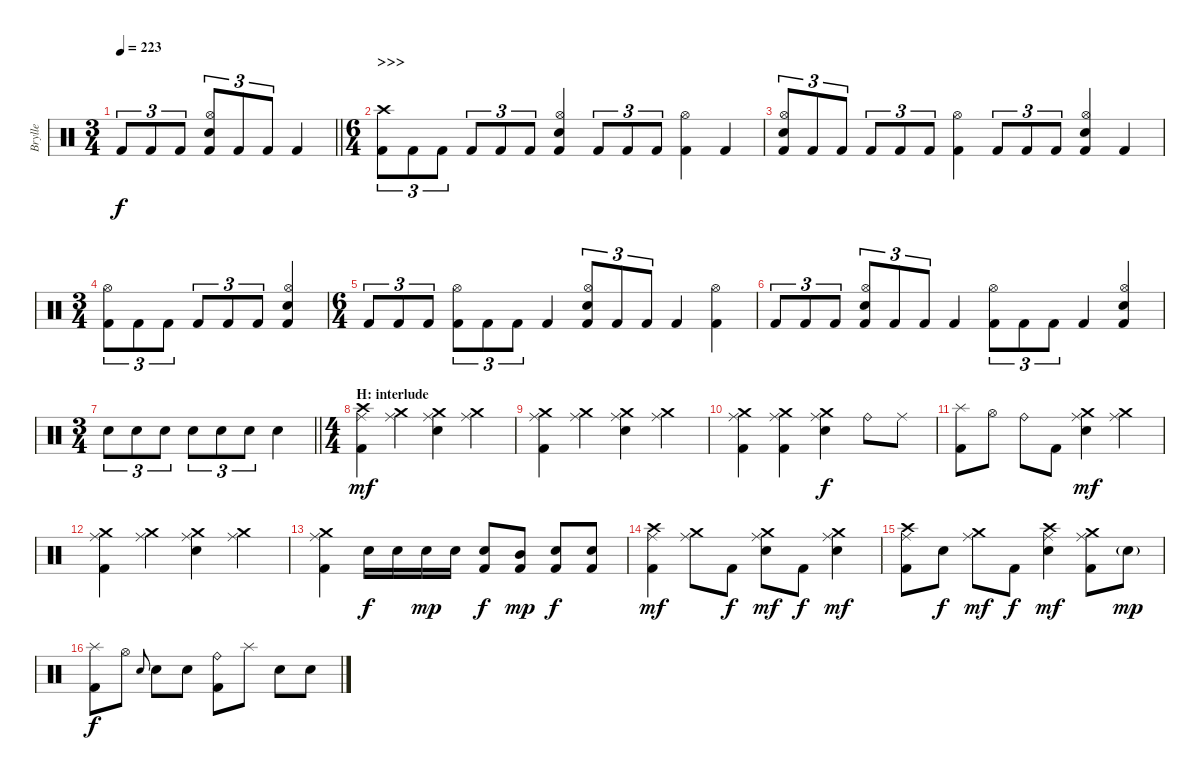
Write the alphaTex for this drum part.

\track ("Brylle" "Brylle") {instrument percussion}
\staff {score}
\articulation defaults
\ts (3 4)
\tempo 223
\clef neutral
\barLineRight lightlight
\ks c "Kick (hit) 2".8{tu (3 2) dy f} "Kick (hit) 2".8{tu (3 2)} "Kick (hit) 2".8{tu (3 2)}
("Hi-Hat (open)" "Electric Snare (hit)" "Kick (hit) 2").8{tu (3 2)} "Kick (hit) 2".8{tu (3 2)} "Kick (hit) 2".8{tu (3 2)} "Kick (hit) 2".4 |
\ts (6 4)
\section ("" ">>>")
("Crash high (hit)" "Kick (hit) 2").8{tu (3 2)} "Kick (hit) 2".8{tu (3 2)} "Kick (hit) 2".8{tu (3 2)} "Kick (hit) 2".8{tu (3 2)} "Kick (hit) 2".8{tu (3 2)} "Kick (hit) 2".8{tu (3 2)} ("Hi-Hat (open)" "Electric Snare (hit)" "Kick (hit) 2").4 "Kick (hit) 2".8{tu (3 2)} "Kick (hit) 2".8{tu (3 2)} "Kick (hit) 2".8{tu (3 2)} ("Hi-Hat (open)" "Kick (hit) 2").4 "Kick (hit) 2".4 |
("Hi-Hat (open)" "Electric Snare (hit)" "Kick (hit) 2").8{tu (3 2)} "Kick (hit) 2".8{tu (3 2)} "Kick (hit) 2".8{tu (3 2)} "Kick (hit) 2".8{tu (3 2)} "Kick (hit) 2".8{tu (3 2)} "Kick (hit) 2".8{tu (3 2)} ("Hi-Hat (open)" "Kick (hit) 2").4 "Kick (hit) 2".8{tu (3 2)} "Kick (hit) 2".8{tu (3 2)} "Kick (hit) 2".8{tu (3 2)} ("Hi-Hat (open)" "Electric Snare (hit)" "Kick (hit) 2").4 "Kick (hit) 2".4 |
\ts (3 4)
("Hi-Hat (open)" "Kick (hit) 2").8{tu (3 2)} "Kick (hit) 2".8{tu (3 2)} "Kick (hit) 2".8{tu (3 2)} "Kick (hit) 2".8{tu (3 2)} "Kick (hit) 2".8{tu (3 2)} "Kick (hit) 2".8{tu (3 2)} ("Hi-Hat (open)" "Electric Snare (hit)" "Kick (hit) 2").4 |
\ts (6 4)
"Kick (hit) 2".8{tu (3 2)} "Kick (hit) 2".8{tu (3 2)} "Kick (hit) 2".8{tu (3 2)} ("Hi-Hat (open)" "Kick (hit) 2").8{tu (3 2)} "Kick (hit) 2".8{tu (3 2)} "Kick (hit) 2".8{tu (3 2)} "Kick (hit) 2".4 ("Hi-Hat (open)" "Electric Snare (hit)" "Kick (hit) 2").8{tu (3 2)} "Kick (hit) 2".8{tu (3 2)} "Kick (hit) 2".8{tu (3 2)} "Kick (hit) 2".4 ("Hi-Hat (open)" "Kick (hit) 2").4 |
"Kick (hit) 2".8{tu (3 2)} "Kick (hit) 2".8{tu (3 2)} "Kick (hit) 2".8{tu (3 2)} ("Hi-Hat (open)" "Electric Snare (hit)" "Kick (hit) 2").8{tu (3 2)} "Kick (hit) 2".8{tu (3 2)} "Kick (hit) 2".8{tu (3 2)} "Kick (hit) 2".4 ("Hi-Hat (open)" "Kick (hit) 2").8{tu (3 2)} "Kick (hit) 2".8{tu (3 2)} "Kick (hit) 2".8{tu (3 2)} "Kick (hit) 2".4 ("Hi-Hat (open)" "Electric Snare (hit)" "Kick (hit) 2").4 |
\ts (3 4)
\barLineRight lightlight "Electric Snare (hit)".8{tu (3 2)} "Electric Snare (hit)".8{tu (3 2)} "Electric Snare (hit)".8{tu (3 2)} "Electric Snare (hit)".8{tu (3 2)} "Electric Snare (hit)".8{tu (3 2)} "Electric Snare (hit)".8{tu (3 2)} "Electric Snare (hit)".4
|
\ts (4 4)
\section ("" "H: interlude")
("Crash high (hit)" "Ride (middle)" "Kick (hit) 2").4{dy mf} ("Crash medium (hit)" "Ride (middle)").4 ("Crash medium (hit)" "Ride (middle)" "Electric Snare (hit)").4 ("Crash medium (hit)" "Ride (middle)").4 |
("Crash medium (hit)" "Ride (middle)" "Kick (hit) 2").4 ("Crash medium (hit)" "Ride (middle)").4 ("Crash medium (hit)" "Ride (middle)" "Electric Snare (hit)").4 ("Crash medium (hit)" "Ride (middle)").4 |
("Crash medium (hit)" "Ride (middle)" "Kick (hit) 2").4 ("Crash medium (hit)" "Ride (middle)" "Kick (hit) 2").4 ("Crash medium (hit)" "Ride (middle)" "Electric Snare (hit)").4{dy f} "Ride (bell)".8 "Ride (middle)".8 |
("Splash (hit)" "Kick (hit) 2").8 "Hi-Hat (open)".8 "Ride (bell)".8 "Kick (hit) 2".8 ("Crash medium (hit)" "Ride (middle)" "Electric Snare (hit)").4{dy mf} ("Crash medium (hit)" "Ride (middle)").4 |
("Crash medium (hit)" "Ride (middle)" "Kick (hit) 2").4 ("Crash medium (hit)" "Ride (middle)").4 ("Crash medium (hit)" "Ride (middle)" "Electric Snare (hit)").4 ("Crash medium (hit)" "Ride (middle)").4 |
("Crash medium (hit)" "Ride (middle)" "Kick (hit) 2").4 "Electric Snare (hit)".16{dy f} "Electric Snare (hit)".16 "Electric Snare (hit)".16{dy mp} "Electric Snare (hit)".16 ("Electric Snare (hit)" "Kick (hit) 2").8{dy f} ("Mid Tom (hit)" "Kick (hit) 2").8{dy mp} ("Electric Snare (hit)" "Kick (hit) 2").8{dy f} ("Electric Snare (hit)" "Kick (hit) 2").8 |
("Crash high (hit)" "Ride (middle)" "Kick (hit) 2").4{dy mf} ("Crash medium (hit)" "Ride (middle)").8 "Kick (hit) 2".8{dy f} ("Crash medium (hit)" "Ride (middle)" "Electric Snare (hit)").8{dy mf} "Kick (hit) 2".8{dy f} ("Crash medium (hit)" "Ride (middle)" "Electric Snare (hit)").4{dy mf} |
("Crash high (hit)" "Ride (middle)" "Kick (hit) 2").8 "Electric Snare (hit)".8{dy f} ("Crash medium (hit)" "Ride (middle)").8{dy mf} "Kick (hit) 2".8{dy f} ("Crash high (hit)" "Ride (middle)" "Electric Snare (hit)").4{dy mf} ("Crash medium (hit)" "Ride (middle)" "Kick (hit) 2").8 "Electric Snare (hit)"{g}.8{dy mp} |
("Splash (hit)" "Kick (hit) 2").8{dy f} "Hi-Hat (open)".8 "Electric Snare (hit)".8{gr onbeat} "Electric Snare (hit)".8 "Electric Snare (hit)".8 ("Ride (bell)" "Kick (hit) 2").8 "Splash (hit)".8 "Electric Snare (hit)".8 "Electric Snare (hit)".8
